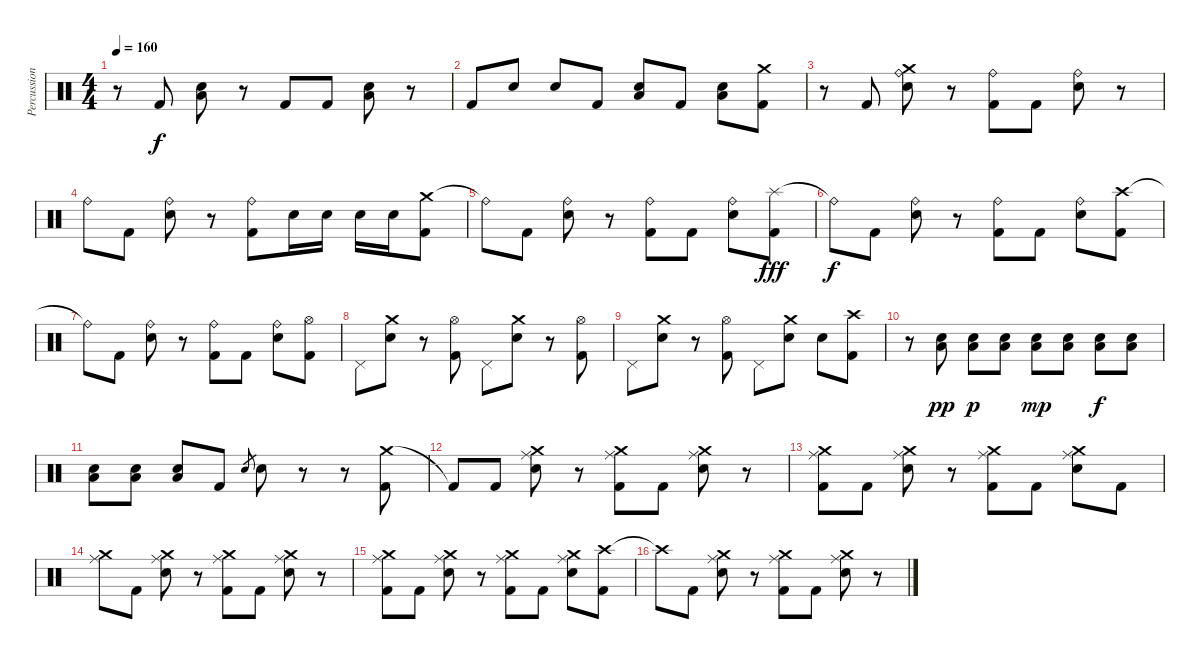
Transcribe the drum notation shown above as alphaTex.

\track ("Percussion" "Percussion") {instrument percussion}
\staff {score}
\articulation defaults
\ts (4 4)
\tempo 160
\clef neutral
\ks c
r.8{dy f} "Kick (hit) 2".8 ("Low Tom (hit)" "Electric Snare (hit)").8 r.8 "Kick (hit) 2".8 "Kick (hit) 2".8 ("Low Tom (hit)" "Electric Snare (hit)").8 r.8 |
"Kick (hit) 2".8 "Electric Snare (hit)".8 "Electric Snare (hit)".8 "Kick (hit) 2".8 ("Low Tom (hit)" "Electric Snare (hit)").8 "Kick (hit) 2".8 ("Low Tom (hit)" "Electric Snare (hit)").8 ("Crash medium (hit)" "Kick (hit) 2").8 |
r.8 "Kick (hit) 2".8 ("Crash medium (hit)" "Ride (bell)" "Electric Snare (hit)").8 r.8 ("Ride (bell)" "Kick (hit) 2").8 "Kick (hit) 2".8 ("Ride (bell)" "Electric Snare (hit)").8 r.8 |
"Ride (bell)".8 "Kick (hit) 2".8 ("Ride (bell)" "Electric Snare (hit)").8 r.8 ("Ride (bell)" "Kick (hit) 2").8 "Electric Snare (hit)".16 "Electric Snare (hit)".16 "Electric Snare (hit)".16 "Electric Snare (hit)".16 ("Crash medium (hit)" "Kick (hit) 2").8 |
"Ride (bell)"{t}.8 "Kick (hit) 2".8 ("Ride (bell)" "Electric Snare (hit)").8 r.8 ("Ride (bell)" "Kick (hit) 2").8 "Kick (hit) 2".8 ("Ride (bell)" "Electric Snare (hit)").8 ("Splash (hit)" "Kick (hit) 2").8{dy fff} |
"Ride (bell)"{t}.8{dy f} "Kick (hit) 2".8 ("Ride (bell)" "Electric Snare (hit)").8 r.8 ("Ride (bell)" "Kick (hit) 2").8 "Kick (hit) 2".8 ("Ride (bell)" "Electric Snare (hit)").8 ("Crash high (hit)" "Kick (hit) 2").8 |
"Ride (bell)"{t}.8 "Kick (hit) 2".8 ("Ride (bell)" "Electric Snare (hit)").8 r.8 ("Ride (bell)" "Kick (hit) 2").8 "Kick (hit) 2".8 ("Ride (bell)" "Electric Snare (hit)").8 ("Hi-Hat (open)" "Kick (hit) 2").8 |
"Pedal Hi-Hat (hit)".8 ("Crash medium (hit)" "Electric Snare (hit)").8 r.8 ("Hi-Hat (open)" "Kick (hit) 2").8 "Pedal Hi-Hat (hit)".8 ("Crash medium (hit)" "Electric Snare (hit)").8 r.8 ("Hi-Hat (open)" "Kick (hit) 2").8 |
"Pedal Hi-Hat (hit)".8 ("Crash medium (hit)" "Electric Snare (hit)").8 r.8 ("Hi-Hat (open)" "Kick (hit) 2").8 "Pedal Hi-Hat (hit)".8 ("Crash medium (hit)" "Electric Snare (hit)").8 "Electric Snare (hit)".8 ("Crash high (hit)" "Kick (hit) 2").8 |
r.8 ("Low Tom (hit)" "Electric Snare (hit)").8{dy pp} ("Low Tom (hit)" "Electric Snare (hit)").8{dy p} ("Low Tom (hit)" "Electric Snare (hit)").8 ("Low Tom (hit)" "Electric Snare (hit)").8{dy mp} ("Low Tom (hit)" "Electric Snare (hit)").8 ("Low Tom (hit)" "Electric Snare (hit)").8{dy f} ("Low Tom (hit)" "Electric Snare (hit)").8 |
("Low Tom (hit)" "Electric Snare (hit)").8 ("Low Tom (hit)" "Electric Snare (hit)").8 ("Low Tom (hit)" "Electric Snare (hit)").8 "Kick (hit) 2".8 "Electric Snare (hit)".8{gr} "Electric Snare (hit)".8 r.8 r.8 ("Crash medium (hit)" "Kick (hit) 2").8 |
"Kick (hit) 2"{t}.8 "Kick (hit) 2".8 ("Ride (middle)" "Crash medium (hit)" "Electric Snare (hit)").8 r.8 ("Ride (middle)" "Crash medium (hit)" "Kick (hit) 2").8 "Kick (hit) 2".8 ("Ride (middle)" "Crash medium (hit)" "Electric Snare (hit)").8 r.8 |
("Ride (middle)" "Crash medium (hit)" "Kick (hit) 2").8 "Kick (hit) 2".8 ("Ride (middle)" "Crash medium (hit)" "Electric Snare (hit)").8 r.8 ("Ride (middle)" "Crash medium (hit)" "Kick (hit) 2").8 "Kick (hit) 2".8 ("Ride (middle)" "Crash medium (hit)" "Electric Snare (hit)").8 "Kick (hit) 2".8 |
("Ride (middle)" "Crash medium (hit)").8 "Kick (hit) 2".8 ("Ride (middle)" "Crash medium (hit)" "Electric Snare (hit)").8 r.8 ("Ride (middle)" "Crash medium (hit)" "Kick (hit) 2").8 "Kick (hit) 2".8 ("Ride (middle)" "Crash medium (hit)" "Electric Snare (hit)").8 r.8 |
("Ride (middle)" "Crash medium (hit)" "Kick (hit) 2").8 "Kick (hit) 2".8 ("Ride (middle)" "Crash medium (hit)" "Electric Snare (hit)").8 r.8 ("Ride (middle)" "Crash medium (hit)" "Kick (hit) 2").8 "Kick (hit) 2".8 ("Ride (middle)" "Crash medium (hit)" "Electric Snare (hit)").8 ("Crash high (hit)" "Kick (hit) 2").8 |
"Crash high (hit)"{t}.8 "Kick (hit) 2".8 ("Ride (middle)" "Crash medium (hit)" "Electric Snare (hit)").8 r.8 ("Ride (middle)" "Crash medium (hit)" "Kick (hit) 2").8 "Kick (hit) 2".8 ("Ride (middle)" "Crash medium (hit)" "Electric Snare (hit)").8 r.8
